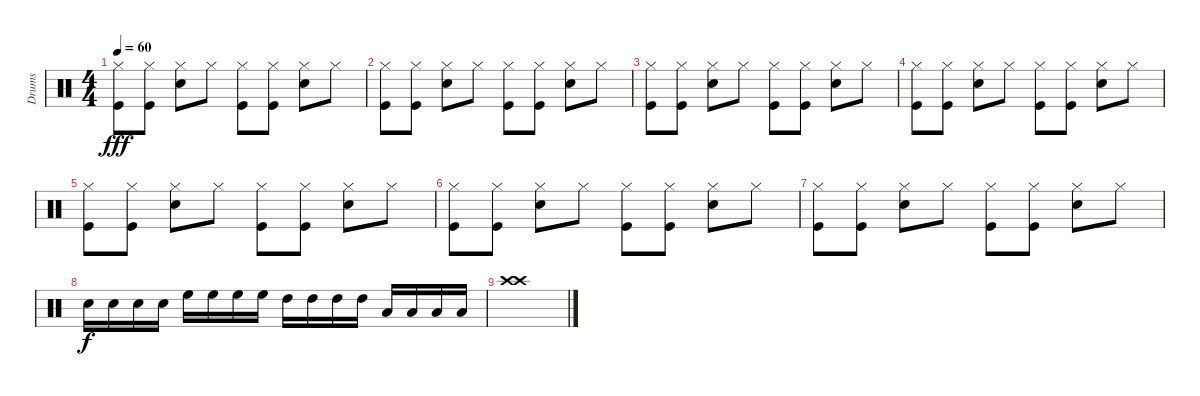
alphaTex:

\track ("Drums" "Drums") {instrument percussion}
\staff {score}
\articulation defaults
\ts (4 4)
\tempo 60
\clef neutral
\ks c
("Hi-Hat (closed)" "Kick (hit)").8{dy fff} ("Hi-Hat (closed)" "Kick (hit)").8 ("Hi-Hat (closed)" "Snare (hit) 2").8 "Hi-Hat (closed)".8 ("Hi-Hat (closed)" "Kick (hit)").8 ("Hi-Hat (closed)" "Kick (hit)").8 ("Hi-Hat (closed)" "Snare (hit) 2").8 "Hi-Hat (closed)".8 |
("Hi-Hat (closed)" "Kick (hit)").8 ("Hi-Hat (closed)" "Kick (hit)").8 ("Hi-Hat (closed)" "Snare (hit) 2").8 "Hi-Hat (closed)".8 ("Hi-Hat (closed)" "Kick (hit)").8 ("Hi-Hat (closed)" "Kick (hit)").8 ("Hi-Hat (closed)" "Snare (hit) 2").8 "Hi-Hat (closed)".8 |
("Hi-Hat (closed)" "Kick (hit)").8 ("Hi-Hat (closed)" "Kick (hit)").8 ("Hi-Hat (closed)" "Snare (hit) 2").8 "Hi-Hat (closed)".8 ("Hi-Hat (closed)" "Kick (hit)").8 ("Hi-Hat (closed)" "Kick (hit)").8 ("Hi-Hat (closed)" "Snare (hit) 2").8 "Hi-Hat (closed)".8 |
("Hi-Hat (closed)" "Kick (hit)").8 ("Hi-Hat (closed)" "Kick (hit)").8 ("Hi-Hat (closed)" "Snare (hit) 2").8 "Hi-Hat (closed)".8 ("Hi-Hat (closed)" "Kick (hit)").8 ("Hi-Hat (closed)" "Kick (hit)").8 ("Hi-Hat (closed)" "Snare (hit) 2").8 "Hi-Hat (closed)".8 |
("Hi-Hat (closed)" "Kick (hit)").8 ("Hi-Hat (closed)" "Kick (hit)").8 ("Hi-Hat (closed)" "Snare (hit) 2").8 "Hi-Hat (closed)".8 ("Hi-Hat (closed)" "Kick (hit)").8 ("Hi-Hat (closed)" "Kick (hit)").8 ("Hi-Hat (closed)" "Snare (hit) 2").8 "Hi-Hat (closed)".8 |
("Hi-Hat (closed)" "Kick (hit)").8 ("Hi-Hat (closed)" "Kick (hit)").8 ("Hi-Hat (closed)" "Snare (hit) 2").8 "Hi-Hat (closed)".8 ("Hi-Hat (closed)" "Kick (hit)").8 ("Hi-Hat (closed)" "Kick (hit)").8 ("Hi-Hat (closed)" "Snare (hit) 2").8 "Hi-Hat (closed)".8 |
("Hi-Hat (closed)" "Kick (hit)").8 ("Hi-Hat (closed)" "Kick (hit)").8 ("Hi-Hat (closed)" "Snare (hit) 2").8 "Hi-Hat (closed)".8 ("Hi-Hat (closed)" "Kick (hit)").8 ("Hi-Hat (closed)" "Kick (hit)").8 ("Hi-Hat (closed)" "Snare (hit) 2").8 "Hi-Hat (closed)".8 |
"Snare (hit) 2".16{dy f} "Snare (hit) 2".16 "Snare (hit) 2".16 "Snare (hit) 2".16 "High Floor Tom (hit)".16 "High Floor Tom (hit)".16 "High Floor Tom (hit)".16 "High Floor Tom (hit)".16 "High Tom (hit)".16 "High Tom (hit)".16 "High Tom (hit)".16 "High Tom (hit)".16 "Low Tom (hit)".16 "Low Tom (hit)".16 "Low Tom (hit)".16 "Low Tom (hit)".16 |
("Crash high (hit)" "Crash high (hit)").1
